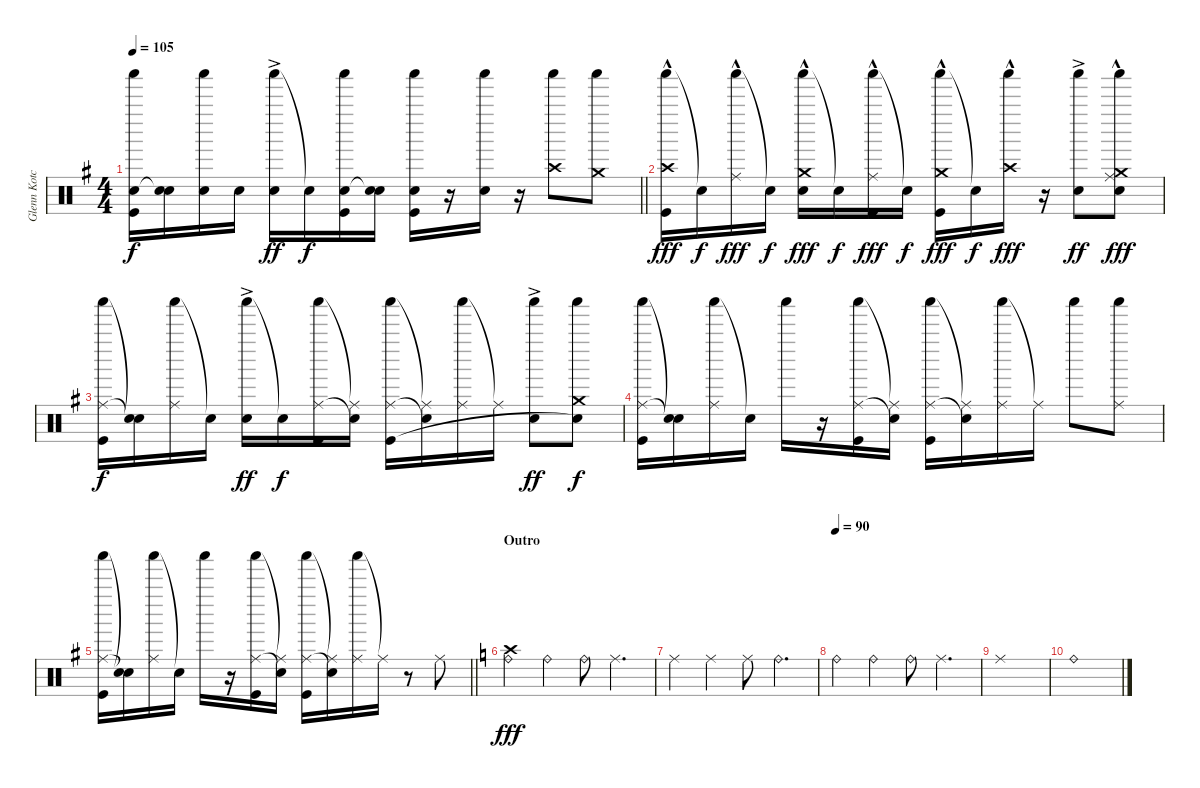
\track ("Glenn Kotche" "Glenn Kotc") {mute instrument percussion}
\staff {score}
\articulation defaults
\ts (4 4)
\tempo 105
\clef neutral
\barLineRight lightlight
\ks g
("Shaker (hit)" "Snare (hit) 2" "Kick (hit)").16{dy f} ("Snare (hit) 2" "Snare (hit)"{t}).16 ("Shaker (hit)" "Snare (hit) 2").16 "Snare (hit) 2".16 ("Shaker (hit)" "Snare (hit) 2"{ac}).16{dy ff} "Snare (hit)"{t}.16{dy f} ("Shaker (hit)" "Snare (hit) 2" "Kick (hit)").16 ("Snare (hit) 2" "Snare (hit)"{t}).16 ("Shaker (hit)" "Snare (hit) 2" "Kick (hit)").16 r.16 ("Shaker (hit)" "Snare (hit) 2").16 r.16 ("Shaker (hit)" "Crash high (hit)").8 ("Shaker (hit)" "Crash medium (hit)").8 |
("Shaker (hit)" "Crash high (hit)"{hac} "Kick (hit)").16{dy fff} "Snare (hit)"{t}.16{dy f} ("Shaker (hit)" "Ride (middle)"{hac}).16{dy fff} "Snare (hit)"{t}.16{dy f} ("Shaker (hit)" "Crash medium (hit)"{hac} "Snare (hit) 2").16{dy fff} "Snare (hit)"{t}.16{dy f} ("Shaker (hit)" "Ride (middle)"{hac} "Kick (hit)").16{dy fff} "Snare (hit)"{t}.16{dy f} ("Shaker (hit)" "Crash medium (hit)"{hac} "Kick (hit)").16{dy fff} "Snare (hit)"{t}.16{dy f} ("Shaker (hit)" "Crash high (hit)"{hac}).16{dy fff} r.16 ("Shaker (hit)" "Snare (hit) 2"{ac}).8{dy ff} ("Shaker (hit)" "Ride (middle)" "Crash medium (hit)"{hac} "Snare (hit)"{t}).8{dy fff} |
("Shaker (hit)" "Ride (middle)" "Kick (hit)").16{dy f} ("Snare (hit)"{t} "Snare (hit)"{t}).16 ("Shaker (hit)" "Ride (middle)").16 "Snare (hit)"{t}.16 ("Shaker (hit)" "Snare (hit) 2"{ac}).16{dy ff} "Snare (hit)"{t}.16{dy f} ("Shaker (hit)" "Ride (middle)" "Kick (hit)").16 ("Ride (middle)"{t} "Snare (hit)"{t}).16 ("Shaker (hit)" "Ride (middle)" "Kick (hit)").16 ("Ride (middle)"{t} "Snare (hit)"{t}).16 ("Shaker (hit)" "Ride (middle)").16 "Ride (middle)"{t}.16 ("Shaker (hit)" "Snare (hit) 2"{ac}).8{dy ff} ("Shaker (hit)" "Crash medium (hit)" "Snare (hit)"{t}).8{dy f} |
("Shaker (hit)" "Ride (middle)" "Kick (hit)").16 ("Snare (hit)"{t} "Snare (hit)"{t}).16 ("Shaker (hit)" "Ride (middle)").16 "Snare (hit)"{t}.16 "Shaker (hit)".16 r.16 ("Shaker (hit)" "Ride (middle)" "Kick (hit)").16 ("Ride (middle)"{t} "Snare (hit)"{t}).16 ("Shaker (hit)" "Ride (middle)" "Kick (hit)").16 ("Ride (middle)"{t} "Snare (hit)"{t}).16 ("Shaker (hit)" "Ride (middle)").16 "Ride (middle)"{t}.16 "Shaker (hit)".8 ("Shaker (hit)" "Ride (middle)").8 |
\barLineRight lightlight
("Shaker (hit)" "Ride (middle)" "Kick (hit)").16 ("Snare (hit)"{t} "Snare (hit)"{t}).16 ("Shaker (hit)" "Ride (middle)").16 "Snare (hit)"{t}.16 "Shaker (hit)".16 r.16 ("Shaker (hit)" "Ride (middle)" "Kick (hit)").16 ("Ride (middle)"{t} "Snare (hit)"{t}).16 ("Shaker (hit)" "Ride (middle)" "Kick (hit)").16 ("Ride (middle)"{t} "Snare (hit)"{t}).16 ("Shaker (hit)" "Ride (middle)").16 "Ride (middle)"{t}.16 r.8 "Ride (middle)".8 |
\section ("" "Outro")
\ks c
("Crash high (hit)" "Ride (bell)").4{dy fff} "Ride (bell)".4 "Ride (bell)".8 "Ride (middle)".4{d} |
"Ride (middle)".4 "Ride (middle)".4 "Ride (middle)".8 "Ride (bell)".4{d} |
\tempo (90)
"Ride (bell)".4 "Ride (bell)".4 "Ride (bell)".8 "Ride (middle)".4{d} |
"Ride (middle)".1 |
"Ride (bell)".1
